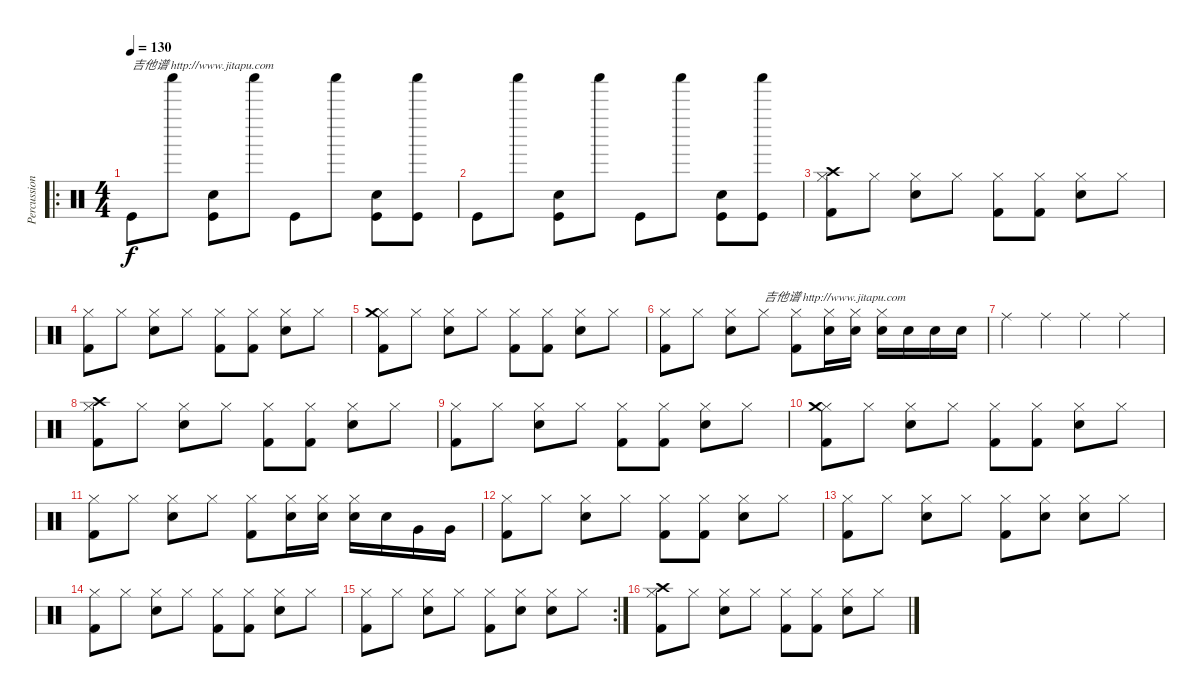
\track ("Percussion" "Percussion") {instrument percussion}
\staff {score}
\articulation defaults
\ro
\ts (4 4)
\tempo 130
\clef neutral
\ks c "Kick (hit)".8{txt "吉他谱 http://www.jitapu.com" dy f} "Shaker (hit)".8
("Kick (hit)" "Electric Snare (hit)").8 "Shaker (hit)".8 "Kick (hit)".8 "Shaker (hit)".8 ("Kick (hit)" "Electric Snare (hit)").8 ("Kick (hit)" "Shaker (hit)").8 |
"Kick (hit)".8 "Shaker (hit)".8 ("Kick (hit)" "Electric Snare (hit)").8 "Shaker (hit)".8 "Kick (hit)".8 "Shaker (hit)".8 ("Kick (hit)" "Electric Snare (hit)").8 ("Kick (hit)" "Shaker (hit)").8 |
("Kick (hit) 2" "Hi-Hat (closed)" "Crash high (hit)").8 "Hi-Hat (closed)".8 ("Hi-Hat (closed)" "Electric Snare (hit)").8 "Hi-Hat (closed)".8 ("Hi-Hat (closed)" "Kick (hit) 2").8 ("Hi-Hat (closed)" "Kick (hit) 2").8 ("Hi-Hat (closed)" "Electric Snare (hit)").8 "Hi-Hat (closed)".8 |
("Kick (hit) 2" "Hi-Hat (closed)").8 "Hi-Hat (closed)".8 ("Hi-Hat (closed)" "Electric Snare (hit)").8 "Hi-Hat (closed)".8 ("Hi-Hat (closed)" "Kick (hit) 2").8 ("Hi-Hat (closed)" "Kick (hit) 2").8 ("Hi-Hat (closed)" "Electric Snare (hit)").8 "Hi-Hat (closed)".8 |
("Kick (hit) 2" "Hi-Hat (closed)" "Crash medium (hit)").8 "Hi-Hat (closed)".8 ("Hi-Hat (closed)" "Electric Snare (hit)").8 "Hi-Hat (closed)".8 ("Hi-Hat (closed)" "Kick (hit) 2").8 ("Hi-Hat (closed)" "Kick (hit) 2").8 ("Hi-Hat (closed)" "Electric Snare (hit)").8 "Hi-Hat (closed)".8 |
("Kick (hit) 2" "Hi-Hat (closed)").8 "Hi-Hat (closed)".8 ("Hi-Hat (closed)" "Electric Snare (hit)").8 "Hi-Hat (closed)".8{txt "吉他谱 http://www.jitapu.com"} ("Hi-Hat (closed)" "Kick (hit) 2").8 ("Hi-Hat (closed)" "Electric Snare (hit)").16 ("Hi-Hat (closed)" "Electric Snare (hit)").16 ("Hi-Hat (closed)" "Electric Snare (hit)").16 "Electric Snare (hit)".16 "Electric Snare (hit)".16 "Electric Snare (hit)".16 |
"Ride (middle)".4 "Ride (middle)".4 "Ride (middle)".4 "Ride (middle)".4 |
("Kick (hit) 2" "Hi-Hat (closed)" "Crash high (hit)").8 "Hi-Hat (closed)".8 ("Hi-Hat (closed)" "Electric Snare (hit)").8 "Hi-Hat (closed)".8 ("Hi-Hat (closed)" "Kick (hit) 2").8 ("Hi-Hat (closed)" "Kick (hit) 2").8 ("Hi-Hat (closed)" "Electric Snare (hit)").8 "Hi-Hat (closed)".8 |
("Kick (hit) 2" "Hi-Hat (closed)").8 "Hi-Hat (closed)".8 ("Hi-Hat (closed)" "Electric Snare (hit)").8 "Hi-Hat (closed)".8 ("Hi-Hat (closed)" "Kick (hit) 2").8 ("Hi-Hat (closed)" "Kick (hit) 2").8 ("Hi-Hat (closed)" "Electric Snare (hit)").8 "Hi-Hat (closed)".8 |
("Kick (hit) 2" "Hi-Hat (closed)" "Crash medium (hit)").8 "Hi-Hat (closed)".8 ("Hi-Hat (closed)" "Electric Snare (hit)").8 "Hi-Hat (closed)".8 ("Hi-Hat (closed)" "Kick (hit) 2").8 ("Hi-Hat (closed)" "Kick (hit) 2").8 ("Hi-Hat (closed)" "Electric Snare (hit)").8 "Hi-Hat (closed)".8 |
("Kick (hit) 2" "Hi-Hat (closed)").8 "Hi-Hat (closed)".8 ("Hi-Hat (closed)" "Electric Snare (hit)").8 "Hi-Hat (closed)".8 ("Hi-Hat (closed)" "Kick (hit) 2").8 ("Hi-Hat (closed)" "Electric Snare (hit)").16 ("Hi-Hat (closed)" "Electric Snare (hit)").16 ("Hi-Hat (closed)" "Electric Snare (hit)").16 "Electric Snare (hit)".16 "Very Low Tom (hit)".16 "Very Low Tom (hit)".16 |
("Kick (hit) 2" "Hi-Hat (closed)").8 "Hi-Hat (closed)".8 ("Hi-Hat (closed)" "Electric Snare (hit)").8 "Hi-Hat (closed)".8 ("Hi-Hat (closed)" "Kick (hit) 2").8 ("Hi-Hat (closed)" "Kick (hit) 2").8 ("Hi-Hat (closed)" "Electric Snare (hit)").8 "Hi-Hat (closed)".8 |
("Kick (hit) 2" "Hi-Hat (closed)").8 "Hi-Hat (closed)".8 ("Hi-Hat (closed)" "Electric Snare (hit)").8 "Hi-Hat (closed)".8 ("Hi-Hat (closed)" "Kick (hit) 2").8 ("Hi-Hat (closed)" "Electric Snare (hit)").8 ("Hi-Hat (closed)" "Electric Snare (hit)").8 "Hi-Hat (closed)".8 |
("Kick (hit) 2" "Hi-Hat (closed)").8 "Hi-Hat (closed)".8 ("Hi-Hat (closed)" "Electric Snare (hit)").8 "Hi-Hat (closed)".8 ("Hi-Hat (closed)" "Kick (hit) 2").8 ("Hi-Hat (closed)" "Kick (hit) 2").8 ("Hi-Hat (closed)" "Electric Snare (hit)").8 "Hi-Hat (closed)".8 |
\rc 2
("Kick (hit) 2" "Hi-Hat (closed)").8 "Hi-Hat (closed)".8 ("Hi-Hat (closed)" "Electric Snare (hit)").8 "Hi-Hat (closed)".8 ("Hi-Hat (closed)" "Kick (hit) 2").8 ("Hi-Hat (closed)" "Electric Snare (hit)").8 ("Hi-Hat (closed)" "Electric Snare (hit)").8 "Hi-Hat (closed)".8 |
("Kick (hit) 2" "Hi-Hat (closed)" "Crash high (hit)").8 "Hi-Hat (closed)".8 ("Hi-Hat (closed)" "Electric Snare (hit)").8 "Hi-Hat (closed)".8 ("Hi-Hat (closed)" "Kick (hit) 2").8 ("Hi-Hat (closed)" "Kick (hit) 2").8 ("Hi-Hat (closed)" "Electric Snare (hit)").8 "Hi-Hat (closed)".8
